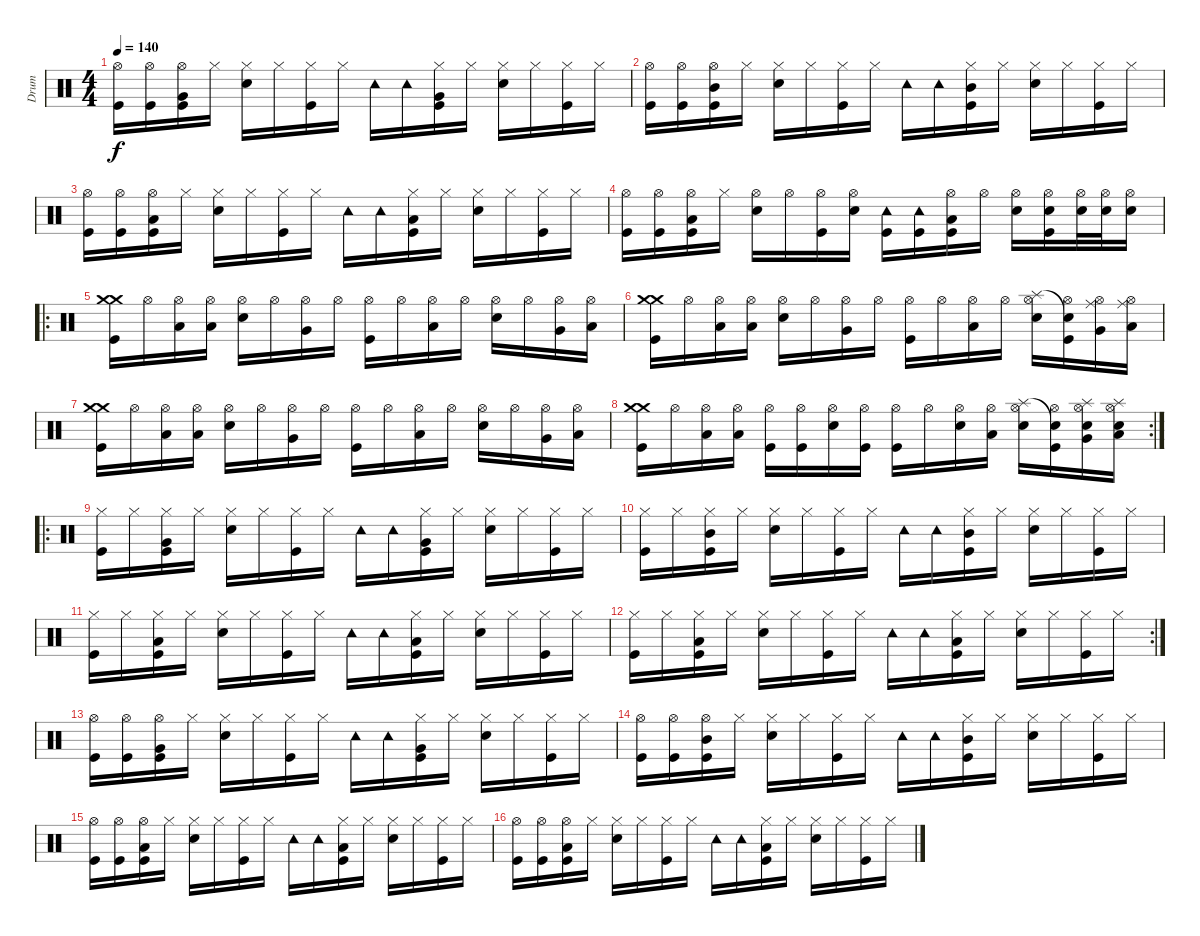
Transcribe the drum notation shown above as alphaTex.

\track ("Drum" "Drum") {instrument percussion}
\staff {score}
\articulation defaults
\ts (4 4)
\tempo 140
\clef neutral
\ks c
("Hi-Hat (open)" "Kick (hit)").16{dy f} ("Hi-Hat (open)" "Kick (hit)").16 ("Hi-Hat (open)" "Very Low Tom (hit)" "Kick (hit)").16 "Hi-Hat (closed)".16 ("Hi-Hat (closed)" "Snare (hit) 2").16 "Hi-Hat (closed)".16 ("Hi-Hat (closed)" "Kick (hit)").16 "Hi-Hat (closed)".16 "Tambourine (hit)".16 "Tambourine (hit)".16 ("Hi-Hat (closed)" "Very Low Tom (hit)" "Kick (hit)").16 "Hi-Hat (closed)".16 ("Hi-Hat (closed)" "Snare (hit) 2").16 "Hi-Hat (closed)".16 ("Hi-Hat (closed)" "Kick (hit)").16 "Hi-Hat (closed)".16 |
("Hi-Hat (open)" "Kick (hit)").16 ("Hi-Hat (open)" "Kick (hit)").16 ("Hi-Hat (open)" "Mid Tom (hit)" "Kick (hit)").16 "Hi-Hat (closed)".16 ("Hi-Hat (closed)" "Snare (hit) 2").16 "Hi-Hat (closed)".16 ("Hi-Hat (closed)" "Kick (hit)").16 "Hi-Hat (closed)".16 "Tambourine (hit)".16 "Tambourine (hit)".16 ("Hi-Hat (closed)" "Mid Tom (hit)" "Kick (hit)").16 "Hi-Hat (closed)".16 ("Hi-Hat (closed)" "Snare (hit) 2").16 "Hi-Hat (closed)".16 ("Hi-Hat (closed)" "Kick (hit)").16 "Hi-Hat (closed)".16 |
("Hi-Hat (open)" "Kick (hit)").16 ("Hi-Hat (open)" "Kick (hit)").16 ("Hi-Hat (open)" "Low Tom (hit)" "Kick (hit)").16 "Hi-Hat (closed)".16 ("Hi-Hat (closed)" "Snare (hit) 2").16 "Hi-Hat (closed)".16 ("Hi-Hat (closed)" "Kick (hit)").16 "Hi-Hat (closed)".16 "Tambourine (hit)".16 "Tambourine (hit)".16 ("Hi-Hat (closed)" "Low Tom (hit)" "Kick (hit)").16 "Hi-Hat (closed)".16 ("Hi-Hat (closed)" "Snare (hit) 2").16 "Hi-Hat (closed)".16 ("Hi-Hat (closed)" "Kick (hit)").16 "Hi-Hat (closed)".16 |
("Hi-Hat (open)" "Kick (hit)").16 ("Hi-Hat (open)" "Kick (hit)").16 ("Hi-Hat (open)" "Low Floor Tom (hit)" "Kick (hit)").16 "Hi-Hat (closed)".16 ("Hi-Hat (open)" "Snare (hit) 2").16 "Hi-Hat (open)".16 ("Hi-Hat (open)" "Kick (hit)").16 ("Hi-Hat (open)" "Snare (hit) 2").16 ("Tambourine (hit)" "Kick (hit)").16 ("Tambourine (hit)" "Kick (hit)").16 ("Hi-Hat (open)" "Low Floor Tom (hit)" "Kick (hit)").16 "Hi-Hat (open)".16 ("Hi-Hat (open)" "Snare (hit) 2").16 ("Hi-Hat (open)" "Snare (hit) 2" "Kick (hit)").16 ("Hi-Hat (open)" "Snare (hit) 2").32 ("Hi-Hat (open)" "Snare (hit) 2").32 ("Hi-Hat (open)" "Snare (hit) 2").16 |
\ro
("Crash medium (hit)" "Crash medium (hit)" "Kick (hit)").16 "Hi-Hat (open)".16 ("Hi-Hat (open)" "Low Tom (hit)").16 ("Hi-Hat (open)" "Low Tom (hit)").16 ("Hi-Hat (open)" "Snare (hit) 2").16 "Hi-Hat (open)".16 ("Hi-Hat (open)" "Very Low Tom (hit)").16 "Hi-Hat (open)".16 ("Hi-Hat (open)" "Kick (hit)").16 "Hi-Hat (open)".16 ("Hi-Hat (open)" "Low Tom (hit)").16 "Hi-Hat (open)".16 ("Hi-Hat (open)" "Snare (hit) 2").16 "Hi-Hat (open)".16 ("Hi-Hat (open)" "Very Low Tom (hit)").16 ("Hi-Hat (open)" "Low Floor Tom (hit)").16 |
("Crash medium (hit)" "Crash medium (hit)" "Kick (hit)").16 "Hi-Hat (open)".16 ("Hi-Hat (open)" "Low Tom (hit)").16 ("Hi-Hat (open)" "Low Tom (hit)").16 ("Hi-Hat (open)" "Snare (hit) 2").16 "Hi-Hat (open)".16 ("Hi-Hat (open)" "Very Low Tom (hit)").16 "Hi-Hat (open)".16 ("Hi-Hat (open)" "Kick (hit)").16 "Hi-Hat (open)".16 ("Hi-Hat (open)" "Low Tom (hit)").16 "Hi-Hat (open)".16 ("Hi-Hat (open)" "Splash (hit)" "Snare (hit) 2").16 ("Hi-Hat (open)" "Snare (hit)"{t} "Kick (hit)").16 ("Hi-Hat (open)" "Ride (middle)" "Very Low Tom (hit)").16 ("Hi-Hat (open)" "Ride (middle)" "Low Floor Tom (hit)").16 |
("Crash medium (hit)" "Crash medium (hit)" "Kick (hit)").16 "Hi-Hat (open)".16 ("Hi-Hat (open)" "Low Tom (hit)").16 ("Hi-Hat (open)" "Low Tom (hit)").16 ("Hi-Hat (open)" "Snare (hit) 2").16 "Hi-Hat (open)".16 ("Hi-Hat (open)" "Very Low Tom (hit)").16 "Hi-Hat (open)".16 ("Hi-Hat (open)" "Kick (hit)").16 "Hi-Hat (open)".16 ("Hi-Hat (open)" "Low Tom (hit)").16 "Hi-Hat (open)".16 ("Hi-Hat (open)" "Snare (hit) 2").16 "Hi-Hat (open)".16 ("Hi-Hat (open)" "Very Low Tom (hit)").16 ("Hi-Hat (open)" "Low Floor Tom (hit)").16 |
\rc 2
("Crash medium (hit)" "Crash medium (hit)" "Kick (hit)").16 "Hi-Hat (open)".16 ("Hi-Hat (open)" "Low Tom (hit)").16 ("Hi-Hat (open)" "Low Tom (hit)").16 ("Hi-Hat (open)" "Kick (hit)").16 ("Hi-Hat (open)" "Kick (hit)").16 ("Hi-Hat (open)" "Snare (hit) 2").16 ("Hi-Hat (open)" "Kick (hit)").16 ("Hi-Hat (open)" "Kick (hit)").16 "Hi-Hat (open)".16 ("Hi-Hat (open)" "Snare (hit) 2").16 ("Hi-Hat (open)" "Low Tom (hit)").16 ("Hi-Hat (open)" "Splash (hit)" "Snare (hit) 2").16 ("Hi-Hat (open)" "Snare (hit)"{t} "Kick (hit)").16 ("Hi-Hat (open)" "Splash (hit)" "Very Low Tom (hit)" "Snare (hit) 2").16 ("Hi-Hat (open)" "Splash (hit)" "Low Floor Tom (hit)" "Snare (hit) 2").16 |
\ro
("Hi-Hat (closed)" "Kick (hit)").16 "Hi-Hat (closed)".16 ("Hi-Hat (closed)" "Very Low Tom (hit)" "Kick (hit)").16 "Hi-Hat (closed)".16 ("Hi-Hat (closed)" "Snare (hit) 2").16 "Hi-Hat (closed)".16 ("Hi-Hat (closed)" "Kick (hit)").16 "Hi-Hat (closed)".16 "Tambourine (hit)".16 "Tambourine (hit)".16 ("Hi-Hat (closed)" "Very Low Tom (hit)" "Kick (hit)").16 "Hi-Hat (closed)".16 ("Hi-Hat (closed)" "Snare (hit) 2").16 "Hi-Hat (closed)".16 ("Hi-Hat (closed)" "Kick (hit)").16 "Hi-Hat (closed)".16 |
("Hi-Hat (closed)" "Kick (hit)").16 "Hi-Hat (closed)".16 ("Hi-Hat (closed)" "Mid Tom (hit)" "Kick (hit)").16 "Hi-Hat (closed)".16 ("Hi-Hat (closed)" "Snare (hit) 2").16 "Hi-Hat (closed)".16 ("Hi-Hat (closed)" "Kick (hit)").16 "Hi-Hat (closed)".16 "Tambourine (hit)".16 "Tambourine (hit)".16 ("Hi-Hat (closed)" "Mid Tom (hit)" "Kick (hit)").16 "Hi-Hat (closed)".16 ("Hi-Hat (closed)" "Snare (hit) 2").16 "Hi-Hat (closed)".16 ("Hi-Hat (closed)" "Kick (hit)").16 "Hi-Hat (closed)".16 |
("Hi-Hat (closed)" "Kick (hit)").16 "Hi-Hat (closed)".16 ("Hi-Hat (closed)" "Low Tom (hit)" "Kick (hit)").16 "Hi-Hat (closed)".16 ("Hi-Hat (closed)" "Snare (hit) 2").16 "Hi-Hat (closed)".16 ("Hi-Hat (closed)" "Kick (hit)").16 "Hi-Hat (closed)".16 "Tambourine (hit)".16 "Tambourine (hit)".16 ("Hi-Hat (closed)" "Low Tom (hit)" "Kick (hit)").16 "Hi-Hat (closed)".16 ("Hi-Hat (closed)" "Snare (hit) 2").16 "Hi-Hat (closed)".16 ("Hi-Hat (closed)" "Kick (hit)").16 "Hi-Hat (closed)".16 |
\rc 2
("Hi-Hat (closed)" "Kick (hit)").16 "Hi-Hat (closed)".16 ("Hi-Hat (closed)" "Low Floor Tom (hit)" "Kick (hit)").16 "Hi-Hat (closed)".16 ("Hi-Hat (closed)" "Snare (hit) 2").16 "Hi-Hat (closed)".16 ("Hi-Hat (closed)" "Kick (hit)").16 "Hi-Hat (closed)".16 "Tambourine (hit)".16 "Tambourine (hit)".16 ("Hi-Hat (closed)" "Low Floor Tom (hit)" "Kick (hit)").16 "Hi-Hat (closed)".16 ("Hi-Hat (closed)" "Snare (hit) 2").16 "Hi-Hat (closed)".16 ("Hi-Hat (closed)" "Kick (hit)").16 "Hi-Hat (closed)".16 |
("Hi-Hat (open)" "Kick (hit)").16 ("Hi-Hat (open)" "Kick (hit)").16 ("Hi-Hat (open)" "Very Low Tom (hit)" "Kick (hit)").16 "Hi-Hat (closed)".16 ("Hi-Hat (closed)" "Snare (hit) 2").16 "Hi-Hat (closed)".16 ("Hi-Hat (closed)" "Kick (hit)").16 "Hi-Hat (closed)".16 "Tambourine (hit)".16 "Tambourine (hit)".16 ("Hi-Hat (closed)" "Very Low Tom (hit)" "Kick (hit)").16 "Hi-Hat (closed)".16 ("Hi-Hat (closed)" "Snare (hit) 2").16 "Hi-Hat (closed)".16 ("Hi-Hat (closed)" "Kick (hit)").16 "Hi-Hat (closed)".16 |
("Hi-Hat (open)" "Kick (hit)").16 ("Hi-Hat (open)" "Kick (hit)").16 ("Hi-Hat (open)" "Mid Tom (hit)" "Kick (hit)").16 "Hi-Hat (closed)".16 ("Hi-Hat (closed)" "Snare (hit) 2").16 "Hi-Hat (closed)".16 ("Hi-Hat (closed)" "Kick (hit)").16 "Hi-Hat (closed)".16 "Tambourine (hit)".16 "Tambourine (hit)".16 ("Hi-Hat (closed)" "Mid Tom (hit)" "Kick (hit)").16 "Hi-Hat (closed)".16 ("Hi-Hat (closed)" "Snare (hit) 2").16 "Hi-Hat (closed)".16 ("Hi-Hat (closed)" "Kick (hit)").16 "Hi-Hat (closed)".16 |
("Hi-Hat (open)" "Kick (hit)").16 ("Hi-Hat (open)" "Kick (hit)").16 ("Hi-Hat (open)" "Low Tom (hit)" "Kick (hit)").16 "Hi-Hat (closed)".16 ("Hi-Hat (closed)" "Snare (hit) 2").16 "Hi-Hat (closed)".16 ("Hi-Hat (closed)" "Kick (hit)").16 "Hi-Hat (closed)".16 "Tambourine (hit)".16 "Tambourine (hit)".16 ("Hi-Hat (closed)" "Low Tom (hit)" "Kick (hit)").16 "Hi-Hat (closed)".16 ("Hi-Hat (closed)" "Snare (hit) 2").16 "Hi-Hat (closed)".16 ("Hi-Hat (closed)" "Kick (hit)").16 "Hi-Hat (closed)".16 |
("Hi-Hat (open)" "Kick (hit)").16 ("Hi-Hat (open)" "Kick (hit)").16 ("Hi-Hat (open)" "Low Floor Tom (hit)" "Kick (hit)").16 "Hi-Hat (closed)".16 ("Hi-Hat (closed)" "Snare (hit) 2").16 "Hi-Hat (closed)".16 ("Hi-Hat (closed)" "Kick (hit)").16 "Hi-Hat (closed)".16 "Tambourine (hit)".16 "Tambourine (hit)".16 ("Hi-Hat (closed)" "Low Floor Tom (hit)" "Kick (hit)").16 "Hi-Hat (closed)".16 ("Hi-Hat (closed)" "Snare (hit) 2").16 "Hi-Hat (closed)".16 ("Hi-Hat (closed)" "Kick (hit)").16 "Hi-Hat (closed)".16
